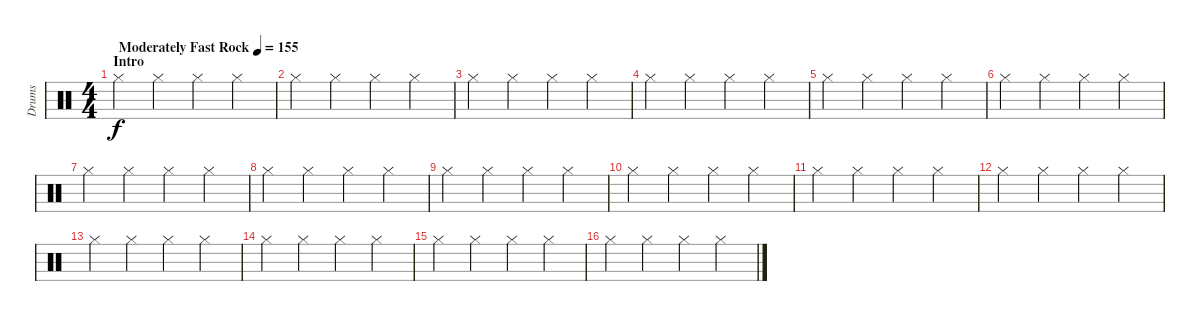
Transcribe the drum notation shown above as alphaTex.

\track ("Drums" "Drums") {instrument percussion}
\staff {score}
\articulation defaults
\ts (4 4)
\section ("" "Intro")
\tempo (155 "Moderately Fast Rock")
\clef neutral
\ks c "Hi-Hat (closed)".4{dy f} "Hi-Hat (closed)".4 "Hi-Hat (closed)".4 "Hi-Hat (closed)".4
|
"Hi-Hat (closed)".4 "Hi-Hat (closed)".4 "Hi-Hat (closed)".4 "Hi-Hat (closed)".4 |
"Hi-Hat (closed)".4 "Hi-Hat (closed)".4 "Hi-Hat (closed)".4 "Hi-Hat (closed)".4 |
"Hi-Hat (closed)".4 "Hi-Hat (closed)".4 "Hi-Hat (closed)".4 "Hi-Hat (closed)".4 |
"Hi-Hat (closed)".4 "Hi-Hat (closed)".4 "Hi-Hat (closed)".4 "Hi-Hat (closed)".4 |
"Hi-Hat (closed)".4 "Hi-Hat (closed)".4 "Hi-Hat (closed)".4 "Hi-Hat (closed)".4 |
"Hi-Hat (closed)".4 "Hi-Hat (closed)".4 "Hi-Hat (closed)".4 "Hi-Hat (closed)".4 |
"Hi-Hat (closed)".4 "Hi-Hat (closed)".4 "Hi-Hat (closed)".4 "Hi-Hat (closed)".4 |
"Hi-Hat (closed)".4 "Hi-Hat (closed)".4 "Hi-Hat (closed)".4 "Hi-Hat (closed)".4 |
"Hi-Hat (closed)".4 "Hi-Hat (closed)".4 "Hi-Hat (closed)".4 "Hi-Hat (closed)".4 |
"Hi-Hat (closed)".4 "Hi-Hat (closed)".4 "Hi-Hat (closed)".4 "Hi-Hat (closed)".4 |
"Hi-Hat (closed)".4 "Hi-Hat (closed)".4 "Hi-Hat (closed)".4 "Hi-Hat (closed)".4 |
"Hi-Hat (closed)".4 "Hi-Hat (closed)".4 "Hi-Hat (closed)".4 "Hi-Hat (closed)".4 |
"Hi-Hat (closed)".4 "Hi-Hat (closed)".4 "Hi-Hat (closed)".4 "Hi-Hat (closed)".4 |
"Hi-Hat (closed)".4 "Hi-Hat (closed)".4 "Hi-Hat (closed)".4 "Hi-Hat (closed)".4 |
"Hi-Hat (closed)".4 "Hi-Hat (closed)".4 "Hi-Hat (closed)".4 "Hi-Hat (closed)".4
